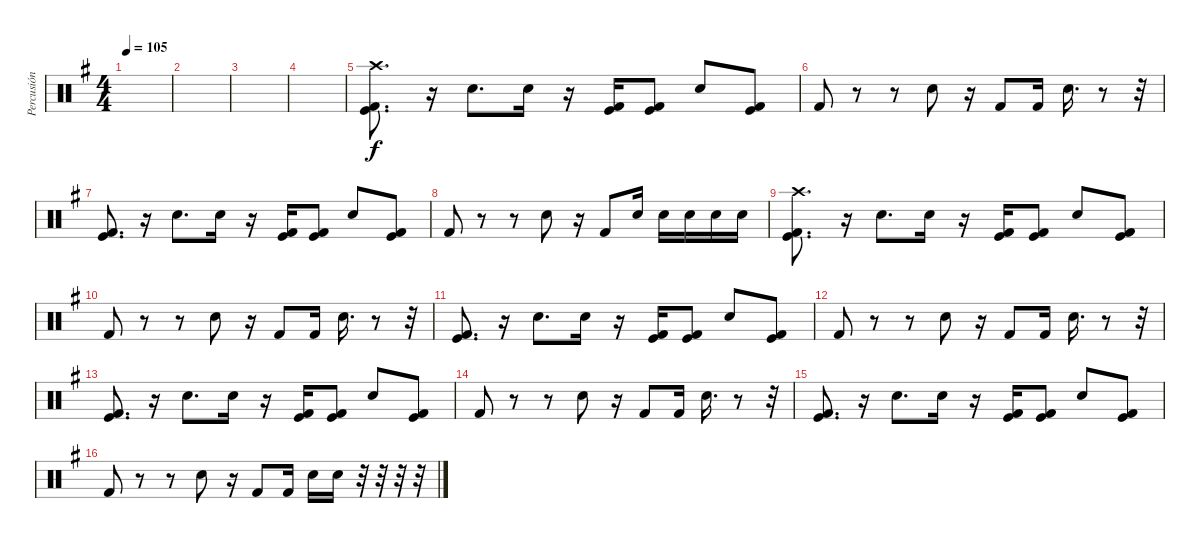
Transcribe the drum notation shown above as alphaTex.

\track ("Percusión" "Percusión") {instrument percussion}
\staff {score}
\articulation defaults
\ts (4 4)
\tempo 105
\clef neutral
\ks g
|
|
|
|
("Crash high (hit)" "Kick (hit)" "Kick (hit) 2").8{d} r.16 "Electric Snare (hit)".8{d} "Electric Snare (hit)".16 r.16 ("Kick (hit)" "Kick (hit) 2").16 ("Kick (hit)" "Kick (hit) 2").8 "Electric Snare (hit)".8 ("Kick (hit)" "Kick (hit) 2").8 |
"Kick (hit) 2".8 r.8 r.8 "Electric Snare (hit)".8 r.16 "Kick (hit) 2".8 "Kick (hit) 2".16 "Electric Snare (hit)".16{d} r.8 r.32 |
("Kick (hit)" "Kick (hit) 2").8{d} r.16 "Electric Snare (hit)".8{d} "Electric Snare (hit)".16 r.16 ("Kick (hit)" "Kick (hit) 2").16 ("Kick (hit)" "Kick (hit) 2").8 "Electric Snare (hit)".8 ("Kick (hit)" "Kick (hit) 2").8 |
"Kick (hit) 2".8 r.8 r.8 "Electric Snare (hit)".8 r.16 "Kick (hit) 2".8 "Electric Snare (hit)".16 "Electric Snare (hit)".16 "Electric Snare (hit)".16 "Electric Snare (hit)".16 "Electric Snare (hit)".16 |
("Crash high (hit)" "Kick (hit)" "Kick (hit) 2").8{d} r.16 "Electric Snare (hit)".8{d} "Electric Snare (hit)".16 r.16 ("Kick (hit)" "Kick (hit) 2").16 ("Kick (hit)" "Kick (hit) 2").8 "Electric Snare (hit)".8 ("Kick (hit)" "Kick (hit) 2").8 |
"Kick (hit) 2".8 r.8 r.8 "Electric Snare (hit)".8 r.16 "Kick (hit) 2".8 "Kick (hit) 2".16 "Electric Snare (hit)".16{d} r.8 r.32 |
("Kick (hit)" "Kick (hit) 2").8{d} r.16 "Electric Snare (hit)".8{d} "Electric Snare (hit)".16 r.16 ("Kick (hit)" "Kick (hit) 2").16 ("Kick (hit)" "Kick (hit) 2").8 "Electric Snare (hit)".8 ("Kick (hit)" "Kick (hit) 2").8 |
"Kick (hit) 2".8 r.8 r.8 "Electric Snare (hit)".8 r.16 "Kick (hit) 2".8 "Kick (hit) 2".16 "Electric Snare (hit)".16{d} r.8 r.32 |
("Kick (hit)" "Kick (hit) 2").8{d} r.16 "Electric Snare (hit)".8{d} "Electric Snare (hit)".16 r.16 ("Kick (hit)" "Kick (hit) 2").16 ("Kick (hit)" "Kick (hit) 2").8 "Electric Snare (hit)".8 ("Kick (hit)" "Kick (hit) 2").8 |
"Kick (hit) 2".8 r.8 r.8 "Electric Snare (hit)".8 r.16 "Kick (hit) 2".8 "Kick (hit) 2".16 "Electric Snare (hit)".16{d} r.8 r.32 |
("Kick (hit)" "Kick (hit) 2").8{d} r.16 "Electric Snare (hit)".8{d} "Electric Snare (hit)".16 r.16 ("Kick (hit)" "Kick (hit) 2").16 ("Kick (hit)" "Kick (hit) 2").8 "Electric Snare (hit)".8 ("Kick (hit)" "Kick (hit) 2").8 |
"Kick (hit) 2".8 r.8 r.8 "Electric Snare (hit)".8 r.16 "Kick (hit) 2".8 "Kick (hit) 2".16 "Electric Snare (hit)".16 "Electric Snare (hit)".16 r.32 r.32 r.32 r.32
